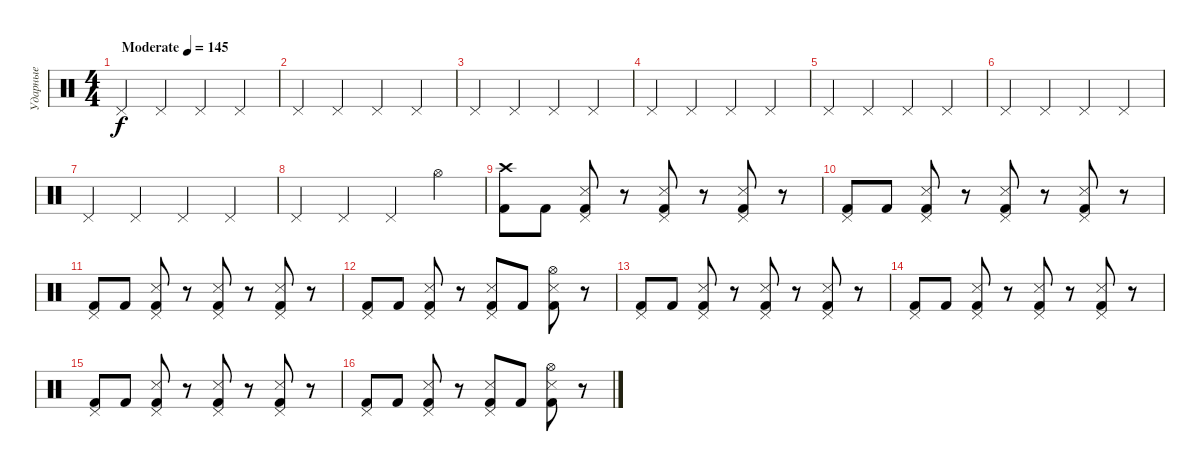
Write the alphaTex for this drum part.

\track ("Ударные" "Ударные") {instrument percussion}
\staff {score}
\articulation defaults
\ts (4 4)
\tempo (145 "Moderate")
\clef neutral
\ks c "Pedal Hi-Hat (hit)".4{dy f} "Pedal Hi-Hat (hit)".4 "Pedal Hi-Hat (hit)".4 "Pedal Hi-Hat (hit)".4
|
"Pedal Hi-Hat (hit)".4 "Pedal Hi-Hat (hit)".4 "Pedal Hi-Hat (hit)".4 "Pedal Hi-Hat (hit)".4 |
"Pedal Hi-Hat (hit)".4 "Pedal Hi-Hat (hit)".4 "Pedal Hi-Hat (hit)".4 "Pedal Hi-Hat (hit)".4 |
"Pedal Hi-Hat (hit)".4 "Pedal Hi-Hat (hit)".4 "Pedal Hi-Hat (hit)".4 "Pedal Hi-Hat (hit)".4 |
"Pedal Hi-Hat (hit)".4 "Pedal Hi-Hat (hit)".4 "Pedal Hi-Hat (hit)".4 "Pedal Hi-Hat (hit)".4 |
"Pedal Hi-Hat (hit)".4 "Pedal Hi-Hat (hit)".4 "Pedal Hi-Hat (hit)".4 "Pedal Hi-Hat (hit)".4 |
"Pedal Hi-Hat (hit)".4 "Pedal Hi-Hat (hit)".4 "Pedal Hi-Hat (hit)".4 "Pedal Hi-Hat (hit)".4 |
"Pedal Hi-Hat (hit)".4 "Pedal Hi-Hat (hit)".4 "Pedal Hi-Hat (hit)".4 "Hi-Hat (open)".4 |
("Crash high (hit)" "Kick (hit) 2").8 "Kick (hit) 2".8 ("Pedal Hi-Hat (hit)" "Metronome (hit)" "Kick (hit) 2").8 r.8 ("Pedal Hi-Hat (hit)" "Metronome (hit)" "Kick (hit) 2").8 r.8 ("Pedal Hi-Hat (hit)" "Metronome (hit)" "Kick (hit) 2").8 r.8 |
("Pedal Hi-Hat (hit)" "Kick (hit) 2").8 "Kick (hit) 2".8 ("Pedal Hi-Hat (hit)" "Metronome (hit)" "Kick (hit) 2").8 r.8 ("Pedal Hi-Hat (hit)" "Metronome (hit)" "Kick (hit) 2").8 r.8 ("Pedal Hi-Hat (hit)" "Metronome (hit)" "Kick (hit) 2").8 r.8 |
("Pedal Hi-Hat (hit)" "Kick (hit) 2").8 "Kick (hit) 2".8 ("Pedal Hi-Hat (hit)" "Metronome (hit)" "Kick (hit) 2").8 r.8 ("Pedal Hi-Hat (hit)" "Metronome (hit)" "Kick (hit) 2").8 r.8 ("Pedal Hi-Hat (hit)" "Metronome (hit)" "Kick (hit) 2").8 r.8 |
("Pedal Hi-Hat (hit)" "Kick (hit) 2").8 "Kick (hit) 2".8 ("Pedal Hi-Hat (hit)" "Metronome (hit)" "Kick (hit) 2").8 r.8 ("Pedal Hi-Hat (hit)" "Metronome (hit)" "Kick (hit) 2").8 "Kick (hit) 2".8 ("Hi-Hat (open)" "Metronome (hit)" "Kick (hit) 2").8 r.8 |
("Pedal Hi-Hat (hit)" "Kick (hit) 2").8 "Kick (hit) 2".8 ("Pedal Hi-Hat (hit)" "Metronome (hit)" "Kick (hit) 2").8 r.8 ("Pedal Hi-Hat (hit)" "Metronome (hit)" "Kick (hit) 2").8 r.8 ("Pedal Hi-Hat (hit)" "Metronome (hit)" "Kick (hit) 2").8 r.8 |
("Pedal Hi-Hat (hit)" "Kick (hit) 2").8 "Kick (hit) 2".8 ("Pedal Hi-Hat (hit)" "Metronome (hit)" "Kick (hit) 2").8 r.8 ("Pedal Hi-Hat (hit)" "Metronome (hit)" "Kick (hit) 2").8 r.8 ("Pedal Hi-Hat (hit)" "Metronome (hit)" "Kick (hit) 2").8 r.8 |
("Pedal Hi-Hat (hit)" "Kick (hit) 2").8 "Kick (hit) 2".8 ("Pedal Hi-Hat (hit)" "Metronome (hit)" "Kick (hit) 2").8 r.8 ("Pedal Hi-Hat (hit)" "Metronome (hit)" "Kick (hit) 2").8 r.8 ("Pedal Hi-Hat (hit)" "Metronome (hit)" "Kick (hit) 2").8 r.8 |
("Pedal Hi-Hat (hit)" "Kick (hit) 2").8 "Kick (hit) 2".8 ("Pedal Hi-Hat (hit)" "Metronome (hit)" "Kick (hit) 2").8 r.8 ("Pedal Hi-Hat (hit)" "Metronome (hit)" "Kick (hit) 2").8 "Kick (hit) 2".8 ("Hi-Hat (open)" "Metronome (hit)" "Kick (hit) 2").8 r.8
